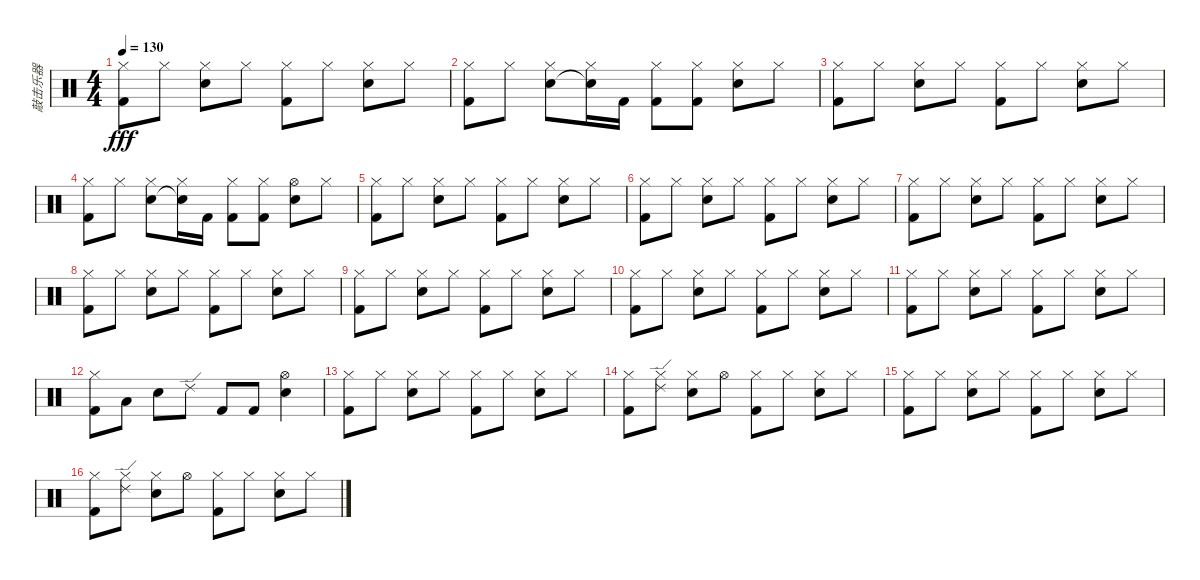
\track ("敲击乐器" "敲击乐器") {instrument percussion}
\staff {score}
\articulation defaults
\ts (4 4)
\tempo 130
\clef neutral
\ks c
("Hi-Hat (closed)" "Kick (hit) 2").8{dy fff} "Hi-Hat (closed)".8 ("Hi-Hat (closed)" "Electric Snare (hit)").8 "Hi-Hat (closed)".8 ("Hi-Hat (closed)" "Kick (hit) 2").8 "Hi-Hat (closed)".8 ("Hi-Hat (closed)" "Electric Snare (hit)").8 "Hi-Hat (closed)".8 |
("Hi-Hat (closed)" "Kick (hit) 2").8 "Hi-Hat (closed)".8 ("Hi-Hat (closed)" "Electric Snare (hit)").8 ("Hi-Hat (closed)" "Electric Snare (hit)"{t}).16 "Kick (hit) 2".16 ("Hi-Hat (closed)" "Kick (hit) 2").8 ("Hi-Hat (closed)" "Kick (hit) 2").8 ("Hi-Hat (closed)" "Electric Snare (hit)").8 "Hi-Hat (closed)".8 |
("Hi-Hat (closed)" "Kick (hit) 2").8 "Hi-Hat (closed)".8 ("Hi-Hat (closed)" "Electric Snare (hit)").8 "Hi-Hat (closed)".8 ("Hi-Hat (closed)" "Kick (hit) 2").8 "Hi-Hat (closed)".8 ("Hi-Hat (closed)" "Electric Snare (hit)").8 "Hi-Hat (closed)".8 |
("Hi-Hat (closed)" "Kick (hit) 2").8 "Hi-Hat (closed)".8 ("Hi-Hat (closed)" "Electric Snare (hit)").8 ("Hi-Hat (closed)" "Electric Snare (hit)"{t}).16 "Kick (hit) 2".16 ("Hi-Hat (closed)" "Kick (hit) 2").8 ("Hi-Hat (closed)" "Kick (hit) 2").8 ("Hi-Hat (open)" "Electric Snare (hit)").8 "Hi-Hat (closed)".8 |
("Hi-Hat (closed)" "Kick (hit) 2").8 "Hi-Hat (closed)".8 ("Hi-Hat (closed)" "Electric Snare (hit)").8 "Hi-Hat (closed)".8 ("Hi-Hat (closed)" "Kick (hit) 2").8 "Hi-Hat (closed)".8 ("Hi-Hat (closed)" "Electric Snare (hit)").8 "Hi-Hat (closed)".8 |
("Hi-Hat (closed)" "Kick (hit) 2").8 "Hi-Hat (closed)".8 ("Hi-Hat (closed)" "Electric Snare (hit)").8 "Hi-Hat (closed)".8 ("Hi-Hat (closed)" "Kick (hit) 2").8 "Hi-Hat (closed)".8 ("Hi-Hat (closed)" "Electric Snare (hit)").8 "Hi-Hat (closed)".8 |
("Hi-Hat (closed)" "Kick (hit) 2").8 "Hi-Hat (closed)".8 ("Hi-Hat (closed)" "Electric Snare (hit)").8 "Hi-Hat (closed)".8 ("Hi-Hat (closed)" "Kick (hit) 2").8 "Hi-Hat (closed)".8 ("Hi-Hat (closed)" "Electric Snare (hit)").8 "Hi-Hat (closed)".8 |
("Hi-Hat (closed)" "Kick (hit) 2").8 "Hi-Hat (closed)".8 ("Hi-Hat (closed)" "Electric Snare (hit)").8 "Hi-Hat (closed)".8 ("Hi-Hat (closed)" "Kick (hit) 2").8 "Hi-Hat (closed)".8 ("Hi-Hat (closed)" "Electric Snare (hit)").8 "Hi-Hat (closed)".8 |
("Hi-Hat (closed)" "Kick (hit) 2").8 "Hi-Hat (closed)".8 ("Hi-Hat (closed)" "Electric Snare (hit)").8 "Hi-Hat (closed)".8 ("Hi-Hat (closed)" "Kick (hit) 2").8 "Hi-Hat (closed)".8 ("Hi-Hat (closed)" "Electric Snare (hit)").8 "Hi-Hat (closed)".8 |
("Hi-Hat (closed)" "Kick (hit) 2").8 "Hi-Hat (closed)".8 ("Hi-Hat (closed)" "Electric Snare (hit)").8 "Hi-Hat (closed)".8 ("Hi-Hat (closed)" "Kick (hit) 2").8 "Hi-Hat (closed)".8 ("Hi-Hat (closed)" "Electric Snare (hit)").8 "Hi-Hat (closed)".8 |
("Hi-Hat (closed)" "Kick (hit) 2").8 "Hi-Hat (closed)".8 ("Hi-Hat (closed)" "Electric Snare (hit)").8 "Hi-Hat (closed)".8 ("Hi-Hat (closed)" "Kick (hit) 2").8 "Hi-Hat (closed)".8 ("Hi-Hat (closed)" "Electric Snare (hit)").8 "Hi-Hat (closed)".8 |
("Hi-Hat (closed)" "Kick (hit) 2").8 "Low Tom (hit)".8 "Electric Snare (hit)".8 "Ride (edge) 2".8 "Kick (hit) 2".8 "Kick (hit) 2".8 ("Hi-Hat (open)" "Electric Snare (hit)").4 |
("Hi-Hat (closed)" "Kick (hit) 2").8 "Hi-Hat (closed)".8 ("Hi-Hat (closed)" "Electric Snare (hit)").8 "Hi-Hat (closed)".8 ("Hi-Hat (closed)" "Kick (hit) 2").8 "Hi-Hat (closed)".8 ("Hi-Hat (closed)" "Electric Snare (hit)").8 "Hi-Hat (closed)".8 |
("Hi-Hat (closed)" "Kick (hit) 2").8 ("Hi-Hat (closed)" "Ride (edge) 2").8 ("Hi-Hat (closed)" "Electric Snare (hit)").8 "Hi-Hat (open)".8 ("Hi-Hat (closed)" "Kick (hit) 2").8 "Hi-Hat (closed)".8 ("Hi-Hat (closed)" "Electric Snare (hit)").8 "Hi-Hat (closed)".8 |
("Hi-Hat (closed)" "Kick (hit) 2").8 "Hi-Hat (closed)".8 ("Hi-Hat (closed)" "Electric Snare (hit)").8 "Hi-Hat (closed)".8 ("Hi-Hat (closed)" "Kick (hit) 2").8 "Hi-Hat (closed)".8 ("Hi-Hat (closed)" "Electric Snare (hit)").8 "Hi-Hat (closed)".8 |
("Hi-Hat (closed)" "Kick (hit) 2").8 ("Hi-Hat (closed)" "Ride (edge) 2").8 ("Hi-Hat (closed)" "Electric Snare (hit)").8 "Hi-Hat (open)".8 ("Hi-Hat (closed)" "Kick (hit) 2").8 "Hi-Hat (closed)".8 ("Hi-Hat (closed)" "Electric Snare (hit)").8 "Hi-Hat (closed)".8
